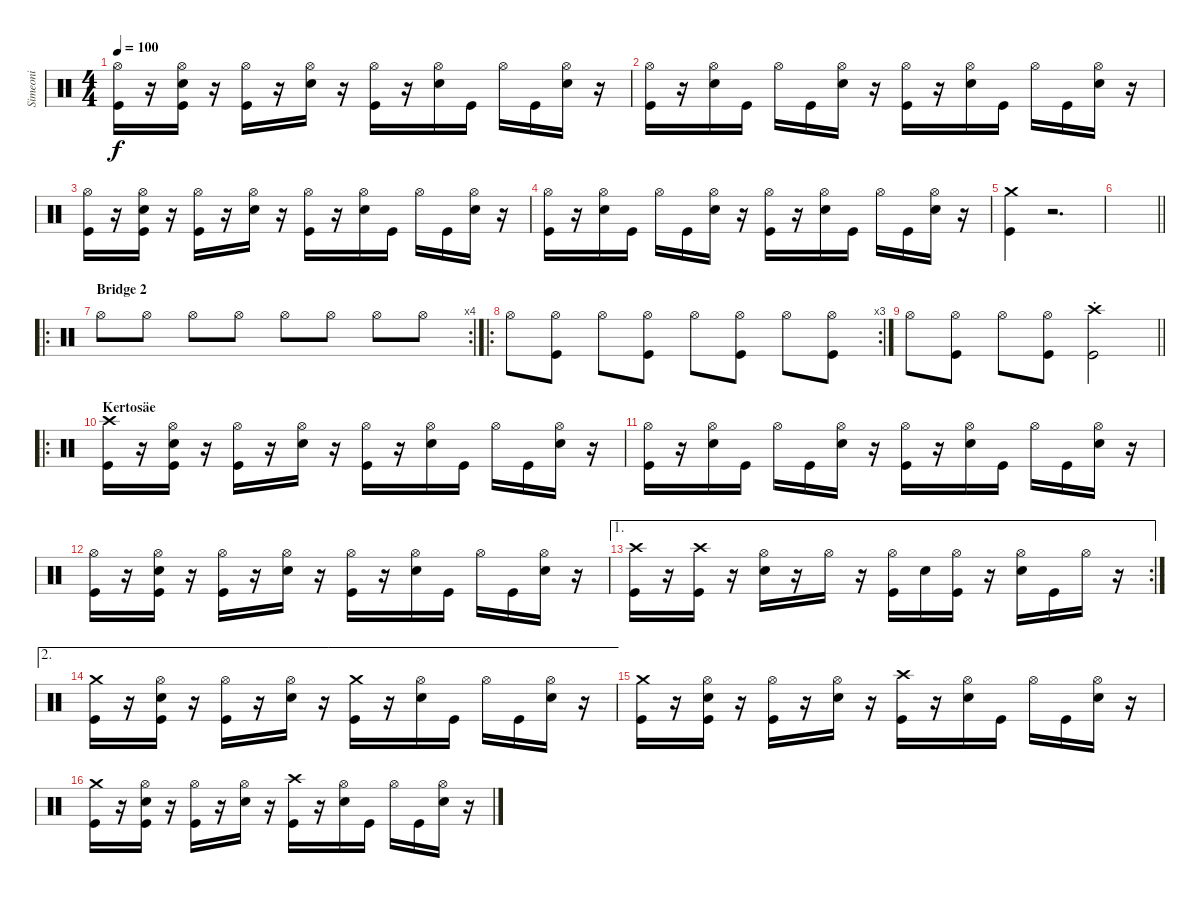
\track ("Simeoni" "Simeoni") {instrument percussion}
\staff {score}
\articulation defaults
\ts (4 4)
\tempo 100
\clef neutral
\ks c
("Hi-Hat (open)" "Kick (hit)").16{dy f} r.16 ("Hi-Hat (open)" "Electric Snare (hit)" "Kick (hit)").16 r.16 ("Hi-Hat (open)" "Kick (hit)").16 r.16 ("Hi-Hat (open)" "Electric Snare (hit)").16 r.16 ("Hi-Hat (open)" "Kick (hit)").16 r.16 ("Hi-Hat (open)" "Electric Snare (hit)").16 "Kick (hit)".16 "Hi-Hat (open)".16 "Kick (hit)".16 ("Hi-Hat (open)" "Electric Snare (hit)").16 r.16 |
("Hi-Hat (open)" "Kick (hit)").16 r.16 ("Hi-Hat (open)" "Electric Snare (hit)").16 "Kick (hit)".16 "Hi-Hat (open)".16 "Kick (hit)".16 ("Hi-Hat (open)" "Electric Snare (hit)").16 r.16 ("Hi-Hat (open)" "Kick (hit)").16 r.16 ("Hi-Hat (open)" "Electric Snare (hit)").16 "Kick (hit)".16 "Hi-Hat (open)".16 "Kick (hit)".16 ("Hi-Hat (open)" "Electric Snare (hit)").16 r.16 |
("Hi-Hat (open)" "Kick (hit)").16 r.16 ("Hi-Hat (open)" "Electric Snare (hit)" "Kick (hit)").16 r.16 ("Hi-Hat (open)" "Kick (hit)").16 r.16 ("Hi-Hat (open)" "Electric Snare (hit)").16 r.16 ("Hi-Hat (open)" "Kick (hit)").16 r.16 ("Hi-Hat (open)" "Electric Snare (hit)").16 "Kick (hit)".16 "Hi-Hat (open)".16 "Kick (hit)".16 ("Hi-Hat (open)" "Electric Snare (hit)").16 r.16 |
("Hi-Hat (open)" "Kick (hit)").16 r.16 ("Hi-Hat (open)" "Electric Snare (hit)").16 "Kick (hit)".16 "Hi-Hat (open)".16 "Kick (hit)".16 ("Hi-Hat (open)" "Electric Snare (hit)").16 r.16 ("Hi-Hat (open)" "Kick (hit)").16 r.16 ("Hi-Hat (open)" "Electric Snare (hit)").16 "Kick (hit)".16 "Hi-Hat (open)".16 "Kick (hit)".16 ("Hi-Hat (open)" "Electric Snare (hit)").16 r.16 |
("Crash medium (hit)" "Kick (hit)").4 r.2{d} |
\barLineRight lightlight
|
\ro
\rc 4
\section ("" "Bridge 2")
"Hi-Hat (open)".8 "Hi-Hat (open)".8 "Hi-Hat (open)".8 "Hi-Hat (open)".8 "Hi-Hat (open)".8 "Hi-Hat (open)".8 "Hi-Hat (open)".8 "Hi-Hat (open)".8 |
\ro
\rc 3 "Hi-Hat (open)".8
("Hi-Hat (open)" "Kick (hit)").8 "Hi-Hat (open)".8 ("Hi-Hat (open)" "Kick (hit)").8 "Hi-Hat (open)".8 ("Hi-Hat (open)" "Kick (hit)").8 "Hi-Hat (open)".8 ("Hi-Hat (open)" "Kick (hit)").8 |
\barLineRight lightlight "Hi-Hat (open)".8
("Hi-Hat (open)" "Kick (hit)").8 "Hi-Hat (open)".8 ("Hi-Hat (open)" "Kick (hit)").8 ("Crash high (hit)"{st} "Kick (hit)").2 |
\ro
\section ("" "Kertosäe")
("Crash high (hit)" "Kick (hit)").16 r.16 ("Hi-Hat (open)" "Electric Snare (hit)" "Kick (hit)").16 r.16 ("Hi-Hat (open)" "Kick (hit)").16 r.16 ("Hi-Hat (open)" "Electric Snare (hit)").16 r.16 ("Hi-Hat (open)" "Kick (hit)").16 r.16 ("Hi-Hat (open)" "Electric Snare (hit)").16 "Kick (hit)".16 "Hi-Hat (open)".16 "Kick (hit)".16 ("Hi-Hat (open)" "Electric Snare (hit)").16 r.16 |
("Hi-Hat (open)" "Kick (hit)").16 r.16 ("Hi-Hat (open)" "Electric Snare (hit)").16 "Kick (hit)".16 "Hi-Hat (open)".16 "Kick (hit)".16 ("Hi-Hat (open)" "Electric Snare (hit)").16 r.16 ("Hi-Hat (open)" "Kick (hit)").16 r.16 ("Hi-Hat (open)" "Electric Snare (hit)").16 "Kick (hit)".16 "Hi-Hat (open)".16 "Kick (hit)".16 ("Hi-Hat (open)" "Electric Snare (hit)").16 r.16 |
("Hi-Hat (open)" "Kick (hit)").16 r.16 ("Hi-Hat (open)" "Electric Snare (hit)" "Kick (hit)").16 r.16 ("Hi-Hat (open)" "Kick (hit)").16 r.16 ("Hi-Hat (open)" "Electric Snare (hit)").16 r.16 ("Hi-Hat (open)" "Kick (hit)").16 r.16 ("Hi-Hat (open)" "Electric Snare (hit)").16 "Kick (hit)".16 "Hi-Hat (open)".16 "Kick (hit)".16 ("Hi-Hat (open)" "Electric Snare (hit)").16 r.16 |
\ae 1
\rc 2
("Crash high (hit)" "Kick (hit)").16 r.16 ("Crash high (hit)" "Kick (hit)").16 r.16 ("Hi-Hat (open)" "Electric Snare (hit)").16 r.16 "Hi-Hat (open)".16 r.16 ("Hi-Hat (open)" "Kick (hit)").16 "Electric Snare (hit)".16 ("Hi-Hat (open)" "Kick (hit)").16 r.16 ("Hi-Hat (open)" "Electric Snare (hit)").16 "Kick (hit)".16 "Hi-Hat (open)".16 r.16 |
\ae 2
("Crash medium (hit)" "Kick (hit)").16 r.16 ("Hi-Hat (open)" "Electric Snare (hit)" "Kick (hit)").16 r.16 ("Hi-Hat (open)" "Kick (hit)").16 r.16 ("Hi-Hat (open)" "Electric Snare (hit)").16 r.16 ("Crash medium (hit)" "Kick (hit)").16 r.16 ("Hi-Hat (open)" "Electric Snare (hit)").16 "Kick (hit)".16 "Hi-Hat (open)".16 "Kick (hit)".16 ("Hi-Hat (open)" "Electric Snare (hit)").16 r.16 |
("Crash medium (hit)" "Kick (hit)").16 r.16 ("Hi-Hat (open)" "Electric Snare (hit)" "Kick (hit)").16 r.16 ("Hi-Hat (open)" "Kick (hit)").16 r.16 ("Hi-Hat (open)" "Electric Snare (hit)").16 r.16 ("Crash high (hit)" "Kick (hit)").16 r.16 ("Hi-Hat (open)" "Electric Snare (hit)").16 "Kick (hit)".16 "Hi-Hat (open)".16 "Kick (hit)".16 ("Hi-Hat (open)" "Electric Snare (hit)").16 r.16 |
("Crash medium (hit)" "Kick (hit)").16 r.16 ("Hi-Hat (open)" "Electric Snare (hit)" "Kick (hit)").16 r.16 ("Hi-Hat (open)" "Kick (hit)").16 r.16 ("Hi-Hat (open)" "Electric Snare (hit)").16 r.16 ("Crash high (hit)" "Kick (hit)").16 r.16 ("Hi-Hat (open)" "Electric Snare (hit)").16 "Kick (hit)".16 "Hi-Hat (open)".16 "Kick (hit)".16 ("Hi-Hat (open)" "Electric Snare (hit)").16 r.16
